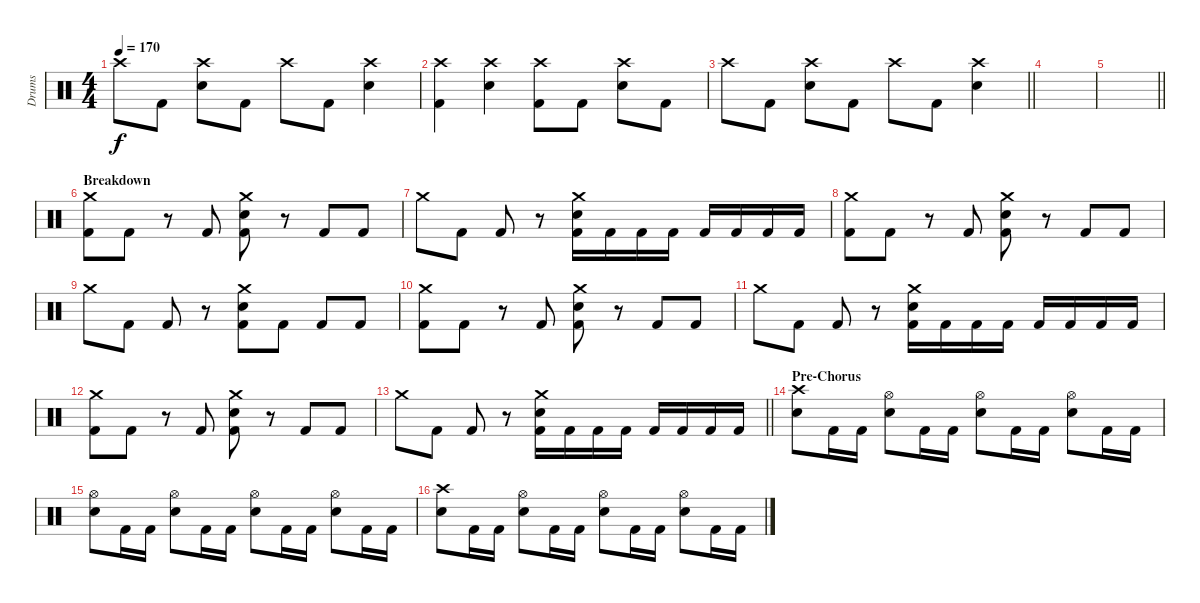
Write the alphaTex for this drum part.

\track ("Drums" "Drums") {instrument percussion}
\staff {score}
\articulation defaults
\ts (4 4)
\tempo 170
\clef neutral
\ks c "Crash high (hit)".8{dy f} "Kick (hit) 2".8
("Crash high (hit)" "Snare (hit) 2").8 "Kick (hit) 2".8 "Crash high (hit)".8 "Kick (hit) 2".8 ("Crash high (hit)" "Snare (hit) 2").4 |
("Crash high (hit)" "Kick (hit) 2").4 ("Crash high (hit)" "Snare (hit) 2").4 ("Crash high (hit)" "Kick (hit) 2").8 "Kick (hit) 2".8 ("Crash high (hit)" "Snare (hit) 2").8 "Kick (hit) 2".8 |
\barLineRight lightlight "Crash high (hit)".8 "Kick (hit) 2".8
("Crash high (hit)" "Snare (hit) 2").8 "Kick (hit) 2".8 "Crash high (hit)".8 "Kick (hit) 2".8 ("Crash high (hit)" "Snare (hit) 2").4 |
|
\barLineRight lightlight
|
\section ("" "Breakdown")
("Crash medium (hit)" "Kick (hit) 2").8 "Kick (hit) 2".8 r.8 "Kick (hit) 2".8 ("Crash medium (hit)" "Snare (hit) 2" "Kick (hit) 2").8 r.8 "Kick (hit) 2".8 "Kick (hit) 2".8 |
"Crash medium (hit)".8 "Kick (hit) 2".8 "Kick (hit) 2".8 r.8 ("Crash medium (hit)" "Snare (hit) 2" "Kick (hit) 2").16 "Kick (hit) 2".16 "Kick (hit) 2".16 "Kick (hit) 2".16 "Kick (hit) 2".16 "Kick (hit) 2".16 "Kick (hit) 2".16 "Kick (hit) 2".16 |
("Crash medium (hit)" "Kick (hit) 2").8 "Kick (hit) 2".8 r.8 "Kick (hit) 2".8 ("Crash medium (hit)" "Snare (hit) 2" "Kick (hit) 2").8 r.8 "Kick (hit) 2".8 "Kick (hit) 2".8 |
"Crash medium (hit)".8 "Kick (hit) 2".8 "Kick (hit) 2".8 r.8 ("Crash medium (hit)" "Snare (hit) 2" "Kick (hit) 2").8 "Kick (hit) 2".8 "Kick (hit) 2".8 "Kick (hit) 2".8 |
("Crash medium (hit)" "Kick (hit) 2").8 "Kick (hit) 2".8 r.8 "Kick (hit) 2".8 ("Crash medium (hit)" "Snare (hit) 2" "Kick (hit) 2").8 r.8 "Kick (hit) 2".8 "Kick (hit) 2".8 |
"Crash medium (hit)".8 "Kick (hit) 2".8 "Kick (hit) 2".8 r.8 ("Crash medium (hit)" "Snare (hit) 2" "Kick (hit) 2").16 "Kick (hit) 2".16 "Kick (hit) 2".16 "Kick (hit) 2".16 "Kick (hit) 2".16 "Kick (hit) 2".16 "Kick (hit) 2".16 "Kick (hit) 2".16 |
("Crash medium (hit)" "Kick (hit) 2").8 "Kick (hit) 2".8 r.8 "Kick (hit) 2".8 ("Crash medium (hit)" "Snare (hit) 2" "Kick (hit) 2").8 r.8 "Kick (hit) 2".8 "Kick (hit) 2".8 |
\barLineRight lightlight "Crash medium (hit)".8 "Kick (hit) 2".8 "Kick (hit) 2".8
r.8 ("Crash medium (hit)" "Snare (hit) 2" "Kick (hit) 2").16 "Kick (hit) 2".16 "Kick (hit) 2".16 "Kick (hit) 2".16 "Kick (hit) 2".16 "Kick (hit) 2".16 "Kick (hit) 2".16 "Kick (hit) 2".16 |
\section ("" "Pre-Chorus")
("Crash high (hit)" "Snare (hit) 2").8 "Kick (hit) 2".16 "Kick (hit) 2".16 ("Hi-Hat (open)" "Snare (hit) 2").8 "Kick (hit) 2".16 "Kick (hit) 2".16 ("Hi-Hat (open)" "Snare (hit) 2").8 "Kick (hit) 2".16 "Kick (hit) 2".16 ("Hi-Hat (open)" "Snare (hit) 2").8 "Kick (hit) 2".16 "Kick (hit) 2".16 |
("Hi-Hat (open)" "Snare (hit) 2").8 "Kick (hit) 2".16 "Kick (hit) 2".16 ("Hi-Hat (open)" "Snare (hit) 2").8 "Kick (hit) 2".16 "Kick (hit) 2".16 ("Hi-Hat (open)" "Snare (hit) 2").8 "Kick (hit) 2".16 "Kick (hit) 2".16 ("Hi-Hat (open)" "Snare (hit) 2").8 "Kick (hit) 2".16 "Kick (hit) 2".16 |
("Crash high (hit)" "Snare (hit) 2").8 "Kick (hit) 2".16 "Kick (hit) 2".16 ("Hi-Hat (open)" "Snare (hit) 2").8 "Kick (hit) 2".16 "Kick (hit) 2".16 ("Hi-Hat (open)" "Snare (hit) 2").8 "Kick (hit) 2".16 "Kick (hit) 2".16 ("Hi-Hat (open)" "Snare (hit) 2").8 "Kick (hit) 2".16 "Kick (hit) 2".16
